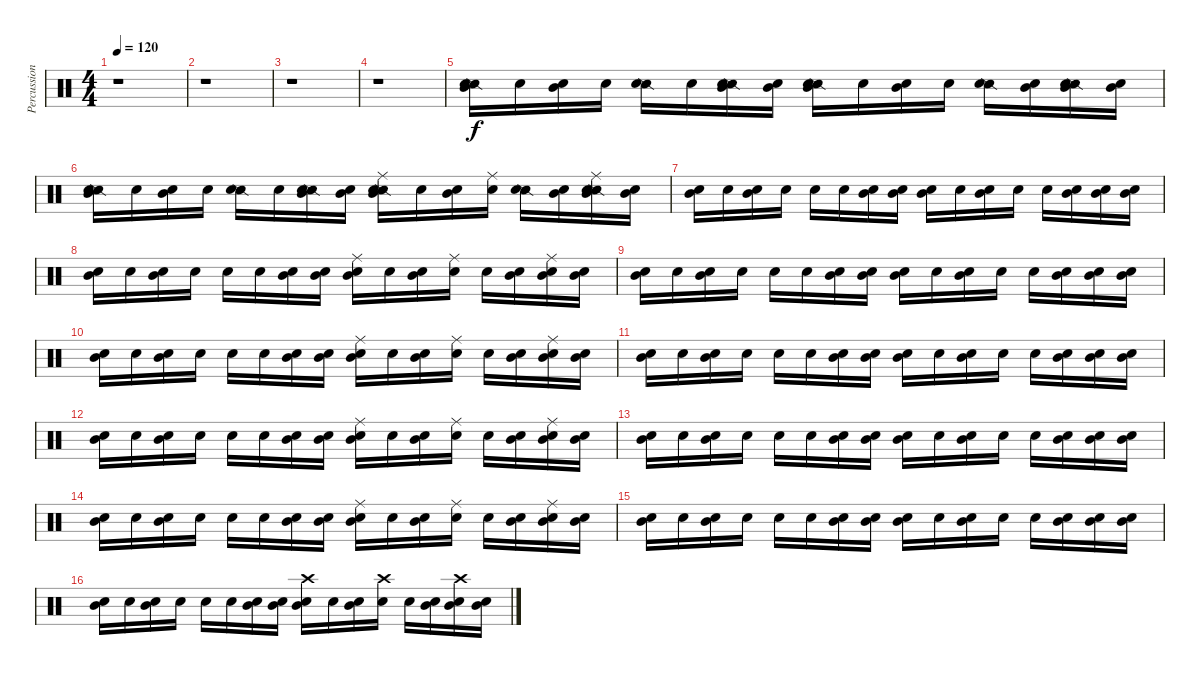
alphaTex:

\track ("Percussion" "Percussion") {instrument percussion}
\staff {score}
\articulation defaults
\ts (4 4)
\tempo 120
\clef neutral
\ks c
r.1{dy f} |
r.1 |
r.1 |
r.1 |
("Mid Tom (hit)" "Snare (side stick) 2" "Snare (hit) 2").16 "Snare (hit) 2".16 ("Mid Tom (hit)" "Snare (hit) 2").16 "Snare (hit) 2".16 ("Snare (side stick) 2" "Snare (hit) 2").16 "Snare (hit) 2".16 ("Mid Tom (hit)" "Snare (side stick) 2" "Snare (hit) 2").16 ("Mid Tom (hit)" "Snare (hit) 2").16 ("Mid Tom (hit)" "Snare (side stick) 2" "Snare (hit) 2").16 "Snare (hit) 2".16 ("Mid Tom (hit)" "Snare (hit) 2").16 "Snare (hit) 2".16 ("Snare (side stick) 2" "Snare (hit) 2").16 ("Mid Tom (hit)" "Snare (hit) 2").16 ("Mid Tom (hit)" "Snare (side stick) 2" "Snare (hit) 2").16 ("Mid Tom (hit)" "Snare (hit) 2").16 |
("Mid Tom (hit)" "Snare (side stick) 2" "Snare (hit) 2").16 "Snare (hit) 2".16 ("Mid Tom (hit)" "Snare (hit) 2").16 "Snare (hit) 2".16 ("Snare (side stick) 2" "Snare (hit) 2").16 "Snare (hit) 2".16 ("Mid Tom (hit)" "Snare (side stick) 2" "Snare (hit) 2").16 ("Mid Tom (hit)" "Snare (hit) 2").16 ("Mid Tom (hit)" "Ride (middle)" "Snare (side stick) 2" "Snare (hit) 2").16 "Snare (hit) 2".16 ("Mid Tom (hit)" "Snare (hit) 2").16 ("Ride (middle)" "Snare (hit) 2").16 ("Snare (side stick) 2" "Snare (hit) 2").16 ("Mid Tom (hit)" "Snare (hit) 2").16 ("Mid Tom (hit)" "Ride (middle)" "Snare (side stick) 2" "Snare (hit) 2").16 ("Mid Tom (hit)" "Snare (hit) 2").16 |
("Mid Tom (hit)" "Snare (hit) 2").16 "Snare (hit) 2".16 ("Mid Tom (hit)" "Snare (hit) 2").16 "Snare (hit) 2".16 "Snare (hit) 2".16 "Snare (hit) 2".16 ("Mid Tom (hit)" "Snare (hit) 2").16 ("Mid Tom (hit)" "Snare (hit) 2").16 ("Mid Tom (hit)" "Snare (hit) 2").16 "Snare (hit) 2".16 ("Mid Tom (hit)" "Snare (hit) 2").16 "Snare (hit) 2".16 "Snare (hit) 2".16 ("Mid Tom (hit)" "Snare (hit) 2").16 ("Mid Tom (hit)" "Snare (hit) 2").16 ("Mid Tom (hit)" "Snare (hit) 2").16 |
("Mid Tom (hit)" "Snare (hit) 2").16 "Snare (hit) 2".16 ("Mid Tom (hit)" "Snare (hit) 2").16 "Snare (hit) 2".16 "Snare (hit) 2".16 "Snare (hit) 2".16 ("Mid Tom (hit)" "Snare (hit) 2").16 ("Mid Tom (hit)" "Snare (hit) 2").16 ("Mid Tom (hit)" "Ride (middle)" "Snare (hit) 2").16 "Snare (hit) 2".16 ("Mid Tom (hit)" "Snare (hit) 2").16 ("Ride (middle)" "Snare (hit) 2").16 "Snare (hit) 2".16 ("Mid Tom (hit)" "Snare (hit) 2").16 ("Mid Tom (hit)" "Ride (middle)" "Snare (hit) 2").16 ("Mid Tom (hit)" "Snare (hit) 2").16 |
("Mid Tom (hit)" "Snare (hit) 2").16 "Snare (hit) 2".16 ("Mid Tom (hit)" "Snare (hit) 2").16 "Snare (hit) 2".16 "Snare (hit) 2".16 "Snare (hit) 2".16 ("Mid Tom (hit)" "Snare (hit) 2").16 ("Mid Tom (hit)" "Snare (hit) 2").16 ("Mid Tom (hit)" "Snare (hit) 2").16 "Snare (hit) 2".16 ("Mid Tom (hit)" "Snare (hit) 2").16 "Snare (hit) 2".16 "Snare (hit) 2".16 ("Mid Tom (hit)" "Snare (hit) 2").16 ("Mid Tom (hit)" "Snare (hit) 2").16 ("Mid Tom (hit)" "Snare (hit) 2").16 |
("Mid Tom (hit)" "Snare (hit) 2").16 "Snare (hit) 2".16 ("Mid Tom (hit)" "Snare (hit) 2").16 "Snare (hit) 2".16 "Snare (hit) 2".16 "Snare (hit) 2".16 ("Mid Tom (hit)" "Snare (hit) 2").16 ("Mid Tom (hit)" "Snare (hit) 2").16 ("Mid Tom (hit)" "Ride (middle)" "Snare (hit) 2").16 "Snare (hit) 2".16 ("Mid Tom (hit)" "Snare (hit) 2").16 ("Ride (middle)" "Snare (hit) 2").16 "Snare (hit) 2".16 ("Mid Tom (hit)" "Snare (hit) 2").16 ("Mid Tom (hit)" "Ride (middle)" "Snare (hit) 2").16 ("Mid Tom (hit)" "Snare (hit) 2").16 |
("Mid Tom (hit)" "Snare (hit) 2").16 "Snare (hit) 2".16 ("Mid Tom (hit)" "Snare (hit) 2").16 "Snare (hit) 2".16 "Snare (hit) 2".16 "Snare (hit) 2".16 ("Mid Tom (hit)" "Snare (hit) 2").16 ("Mid Tom (hit)" "Snare (hit) 2").16 ("Mid Tom (hit)" "Snare (hit) 2").16 "Snare (hit) 2".16 ("Mid Tom (hit)" "Snare (hit) 2").16 "Snare (hit) 2".16 "Snare (hit) 2".16 ("Mid Tom (hit)" "Snare (hit) 2").16 ("Mid Tom (hit)" "Snare (hit) 2").16 ("Mid Tom (hit)" "Snare (hit) 2").16 |
("Mid Tom (hit)" "Snare (hit) 2").16 "Snare (hit) 2".16 ("Mid Tom (hit)" "Snare (hit) 2").16 "Snare (hit) 2".16 "Snare (hit) 2".16 "Snare (hit) 2".16 ("Mid Tom (hit)" "Snare (hit) 2").16 ("Mid Tom (hit)" "Snare (hit) 2").16 ("Mid Tom (hit)" "Ride (middle)" "Snare (hit) 2").16 "Snare (hit) 2".16 ("Mid Tom (hit)" "Snare (hit) 2").16 ("Ride (middle)" "Snare (hit) 2").16 "Snare (hit) 2".16 ("Mid Tom (hit)" "Snare (hit) 2").16 ("Mid Tom (hit)" "Ride (middle)" "Snare (hit) 2").16 ("Mid Tom (hit)" "Snare (hit) 2").16 |
("Mid Tom (hit)" "Snare (hit) 2").16 "Snare (hit) 2".16 ("Mid Tom (hit)" "Snare (hit) 2").16 "Snare (hit) 2".16 "Snare (hit) 2".16 "Snare (hit) 2".16 ("Mid Tom (hit)" "Snare (hit) 2").16 ("Mid Tom (hit)" "Snare (hit) 2").16 ("Mid Tom (hit)" "Snare (hit) 2").16 "Snare (hit) 2".16 ("Mid Tom (hit)" "Snare (hit) 2").16 "Snare (hit) 2".16 "Snare (hit) 2".16 ("Mid Tom (hit)" "Snare (hit) 2").16 ("Mid Tom (hit)" "Snare (hit) 2").16 ("Mid Tom (hit)" "Snare (hit) 2").16 |
("Mid Tom (hit)" "Snare (hit) 2").16 "Snare (hit) 2".16 ("Mid Tom (hit)" "Snare (hit) 2").16 "Snare (hit) 2".16 "Snare (hit) 2".16 "Snare (hit) 2".16 ("Mid Tom (hit)" "Snare (hit) 2").16 ("Mid Tom (hit)" "Snare (hit) 2").16 ("Mid Tom (hit)" "Ride (middle)" "Snare (hit) 2").16 "Snare (hit) 2".16 ("Mid Tom (hit)" "Snare (hit) 2").16 ("Ride (middle)" "Snare (hit) 2").16 "Snare (hit) 2".16 ("Mid Tom (hit)" "Snare (hit) 2").16 ("Mid Tom (hit)" "Ride (middle)" "Snare (hit) 2").16 ("Mid Tom (hit)" "Snare (hit) 2").16 |
("Mid Tom (hit)" "Snare (hit) 2").16 "Snare (hit) 2".16 ("Mid Tom (hit)" "Snare (hit) 2").16 "Snare (hit) 2".16 "Snare (hit) 2".16 "Snare (hit) 2".16 ("Mid Tom (hit)" "Snare (hit) 2").16 ("Mid Tom (hit)" "Snare (hit) 2").16 ("Mid Tom (hit)" "Snare (hit) 2").16 "Snare (hit) 2".16 ("Mid Tom (hit)" "Snare (hit) 2").16 "Snare (hit) 2".16 "Snare (hit) 2".16 ("Mid Tom (hit)" "Snare (hit) 2").16 ("Mid Tom (hit)" "Snare (hit) 2").16 ("Mid Tom (hit)" "Snare (hit) 2").16 |
("Mid Tom (hit)" "Snare (hit) 2").16 "Snare (hit) 2".16 ("Mid Tom (hit)" "Snare (hit) 2").16 "Snare (hit) 2".16 "Snare (hit) 2".16 "Snare (hit) 2".16 ("Mid Tom (hit)" "Snare (hit) 2").16 ("Mid Tom (hit)" "Snare (hit) 2").16 ("Mid Tom (hit)" "Crash high (hit)" "Snare (hit) 2").16 "Snare (hit) 2".16 ("Mid Tom (hit)" "Snare (hit) 2").16 ("Crash high (hit)" "Snare (hit) 2").16 "Snare (hit) 2".16 ("Mid Tom (hit)" "Snare (hit) 2").16 ("Mid Tom (hit)" "Crash high (hit)" "Snare (hit) 2").16 ("Mid Tom (hit)" "Snare (hit) 2").16
